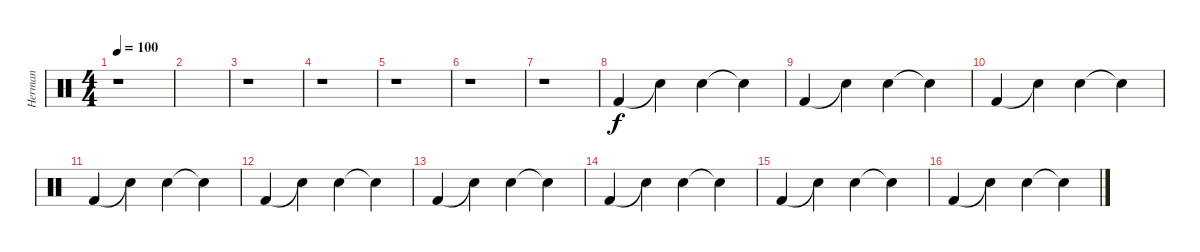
\track ("Herman" "Herman") {instrument percussion}
\staff {score}
\articulation defaults
\ts (4 4)
\tempo 100
\clef neutral
\ks c
r.1{dy f} |
|
r.1 |
r.1 |
r.1 |
r.1 |
r.1 |
"Kick (hit) 2".4 "Snare (hit)"{t}.4 "Snare (hit) 2".4 "Snare (hit)"{t}.4 |
"Kick (hit) 2".4 "Snare (hit)"{t}.4 "Snare (hit) 2".4 "Snare (hit)"{t}.4 |
"Kick (hit) 2".4 "Snare (hit)"{t}.4 "Snare (hit) 2".4 "Snare (hit)"{t}.4 |
"Kick (hit) 2".4 "Snare (hit)"{t}.4 "Snare (hit) 2".4 "Snare (hit)"{t}.4 |
"Kick (hit) 2".4 "Snare (hit)"{t}.4 "Snare (hit) 2".4 "Snare (hit)"{t}.4 |
"Kick (hit) 2".4 "Snare (hit)"{t}.4 "Snare (hit) 2".4 "Snare (hit)"{t}.4 |
"Kick (hit) 2".4 "Snare (hit)"{t}.4 "Snare (hit) 2".4 "Snare (hit)"{t}.4 |
"Kick (hit) 2".4 "Snare (hit)"{t}.4 "Snare (hit) 2".4 "Snare (hit)"{t}.4 |
"Kick (hit) 2".4 "Snare (hit)"{t}.4 "Snare (hit) 2".4 "Snare (hit)"{t}.4
